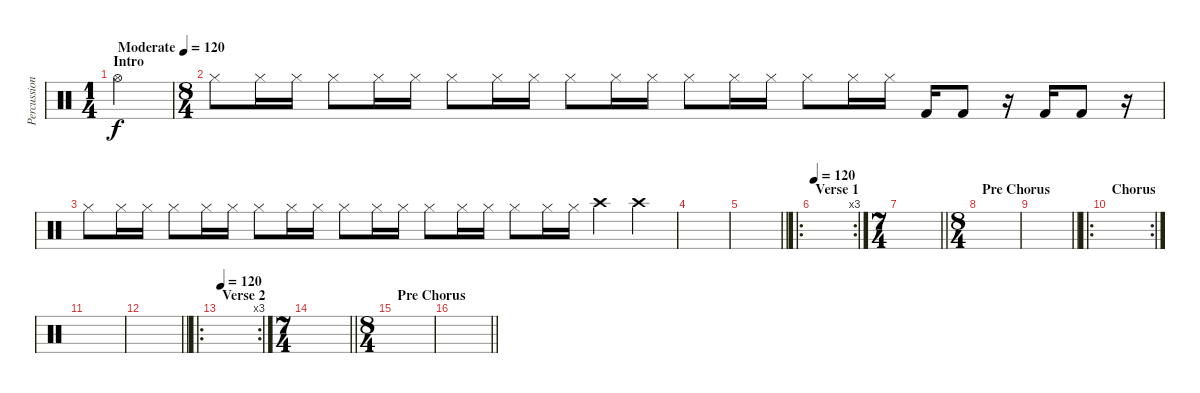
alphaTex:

\track ("Percussion" "Percussion") {instrument percussion}
\staff {score}
\articulation defaults
\ts (1 4)
\section ("" "Intro")
\tempo (120 "Moderate")
\clef neutral
\ks c "Hi-Hat (open)".4{dy f}
|
\ts (8 4)
"Hi-Hat (closed)".8 "Hi-Hat (closed)".16 "Hi-Hat (closed)".16 "Hi-Hat (closed)".8 "Hi-Hat (closed)".16 "Hi-Hat (closed)".16 "Hi-Hat (closed)".8 "Hi-Hat (closed)".16 "Hi-Hat (closed)".16 "Hi-Hat (closed)".8 "Hi-Hat (closed)".16 "Hi-Hat (closed)".16 "Hi-Hat (closed)".8 "Hi-Hat (closed)".16 "Hi-Hat (closed)".16 "Hi-Hat (closed)".8 "Hi-Hat (closed)".16 "Hi-Hat (closed)".16 "Kick (hit) 2".16 "Kick (hit) 2".8 r.16 "Kick (hit) 2".16 "Kick (hit) 2".8 r.16 |
"Hi-Hat (closed)".8{volume 4} "Hi-Hat (closed)".16{volume 13} "Hi-Hat (closed)".16 "Hi-Hat (closed)".8 "Hi-Hat (closed)".16 "Hi-Hat (closed)".16 "Hi-Hat (closed)".8 "Hi-Hat (closed)".16 "Hi-Hat (closed)".16 "Hi-Hat (closed)".8 "Hi-Hat (closed)".16 "Hi-Hat (closed)".16 "Hi-Hat (closed)".8 "Hi-Hat (closed)".16 "Hi-Hat (closed)".16 "Hi-Hat (closed)".8 "Hi-Hat (closed)".16 "Hi-Hat (closed)".16 "Crash high (hit)".4 "Crash high (hit)".4 |
|
\barLineRight lightlight
|
\ro
\rc 3
\section ("" "Verse 1")
\tempo 120
|
\ts (7 4)
\barLineRight lightlight
|
\ts (8 4)
\section ("" "Pre Chorus")
|
\barLineRight lightlight
|
\ro
\rc 2
\section ("" "Chorus")
|
|
\barLineRight lightlight
|
\ro
\rc 3
\section ("" "Verse 2")
\tempo 120
|
\ts (7 4)
\barLineRight lightlight
|
\ts (8 4)
\section ("" "Pre Chorus")
|
\barLineRight lightlight
